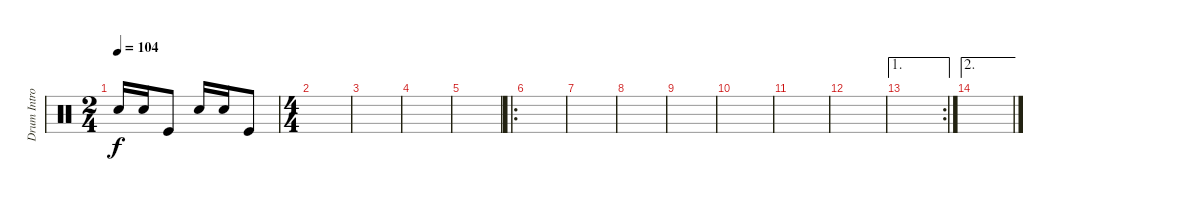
\track ("Drum Intro" "Drum Intro") {instrument percussion}
\staff {score}
\articulation defaults
\ts (2 4)
\tempo 104
\clef neutral
\ks c "Snare (hit) 2".16{dy f} "Snare (hit) 2".16 "Kick (hit)".8 "Snare (hit) 2".16 "Snare (hit) 2".16 "Kick (hit)".8
|
\ts (4 4)
|
|
|
|
\ro
|
|
|
|
|
|
|
\ae 1
\rc 2
|
\ae 2
